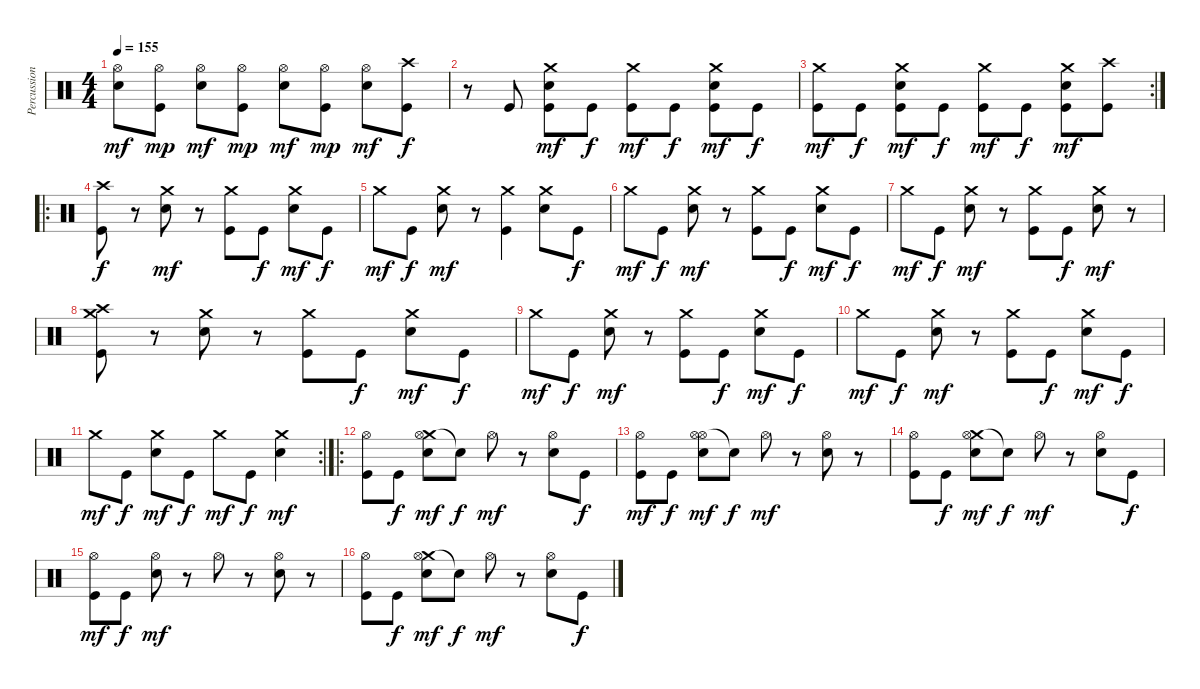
\track ("Percussions" "Percussion") {instrument percussion}
\staff {score}
\articulation defaults
\ts (4 4)
\tempo 155
\clef neutral
\ks c
("Electric Snare (hit)" "Hi-Hat (open)").8{dy mf} ("Kick (hit)" "Hi-Hat (open)").8{dy mp} ("Electric Snare (hit)" "Hi-Hat (open)").8{dy mf} ("Kick (hit)" "Hi-Hat (open)").8{dy mp} ("Electric Snare (hit)" "Hi-Hat (open)").8{dy mf} ("Kick (hit)" "Hi-Hat (open)").8{dy mp} ("Electric Snare (hit)" "Hi-Hat (open)").8{dy mf} ("Kick (hit)" "Crash high (hit)").8{dy f} |
r.8 "Kick (hit)".8 ("Kick (hit)" "Electric Snare (hit)" "Crash medium (hit)").8{dy mf} "Kick (hit)".8{dy f} ("Kick (hit)" "Crash medium (hit)").8{dy mf} "Kick (hit)".8{dy f} ("Kick (hit)" "Electric Snare (hit)" "Crash medium (hit)").8{dy mf} "Kick (hit)".8{dy f} |
\rc 2
("Kick (hit)" "Crash medium (hit)").8{dy mf} "Kick (hit)".8{dy f} ("Kick (hit)" "Electric Snare (hit)" "Crash medium (hit)").8{dy mf} "Kick (hit)".8{dy f} ("Kick (hit)" "Crash medium (hit)").8{dy mf} "Kick (hit)".8{dy f} ("Kick (hit)" "Electric Snare (hit)" "Crash medium (hit)").8{dy mf} ("Kick (hit)" "Crash high (hit)").8 |
\ro
("Kick (hit)" "Crash high (hit)").8{dy f} r.8 ("Electric Snare (hit)" "Crash medium (hit)").8{dy mf} r.8 ("Kick (hit)" "Crash medium (hit)").8 "Kick (hit)".8{dy f} ("Electric Snare (hit)" "Crash medium (hit)").8{dy mf} "Kick (hit)".8{dy f} |
"Crash medium (hit)".8{dy mf} "Kick (hit)".8{dy f} ("Electric Snare (hit)" "Crash medium (hit)").8{dy mf} r.8 ("Kick (hit)" "Crash medium (hit)").4 ("Electric Snare (hit)" "Crash medium (hit)").8 "Kick (hit)".8{dy f} |
"Crash medium (hit)".8{dy mf} "Kick (hit)".8{dy f} ("Electric Snare (hit)" "Crash medium (hit)").8{dy mf} r.8 ("Kick (hit)" "Crash medium (hit)").8 "Kick (hit)".8{dy f} ("Electric Snare (hit)" "Crash medium (hit)").8{dy mf} "Kick (hit)".8{dy f} |
"Crash medium (hit)".8{dy mf} "Kick (hit)".8{dy f} ("Electric Snare (hit)" "Crash medium (hit)").8{dy mf} r.8 ("Kick (hit)" "Crash medium (hit)").8 "Kick (hit)".8{dy f} ("Electric Snare (hit)" "Crash medium (hit)").8{dy mf} r.8 |
("Kick (hit)" "Crash medium (hit)" "Crash high (hit)").8 r.8 ("Electric Snare (hit)" "Crash medium (hit)").8 r.8 ("Kick (hit)" "Crash medium (hit)").8 "Kick (hit)".8{dy f} ("Electric Snare (hit)" "Crash medium (hit)").8{dy mf} "Kick (hit)".8{dy f} |
"Crash medium (hit)".8{dy mf} "Kick (hit)".8{dy f} ("Electric Snare (hit)" "Crash medium (hit)").8{dy mf} r.8 ("Kick (hit)" "Crash medium (hit)").8 "Kick (hit)".8{dy f} ("Electric Snare (hit)" "Crash medium (hit)").8{dy mf} "Kick (hit)".8{dy f} |
"Crash medium (hit)".8{dy mf} "Kick (hit)".8{dy f} ("Electric Snare (hit)" "Crash medium (hit)").8{dy mf} r.8 ("Kick (hit)" "Crash medium (hit)").8 "Kick (hit)".8{dy f} ("Electric Snare (hit)" "Crash medium (hit)").8{dy mf} "Kick (hit)".8{dy f} |
\rc 2 "Crash medium (hit)".8{dy mf} "Kick (hit)".8{dy f}
("Electric Snare (hit)" "Crash medium (hit)").8{dy mf} "Kick (hit)".8{dy f} "Crash medium (hit)".8{dy mf} "Kick (hit)".8{dy f} ("Electric Snare (hit)" "Crash medium (hit)").4{dy mf} |
\ro
("Kick (hit)" "Hi-Hat (open)").8 "Kick (hit)".8{dy f} ("Crash medium (hit)" "Electric Snare (hit)" "Hi-Hat (open)").8{dy mf} "Snare (hit)"{t}.8{dy f} "Hi-Hat (open)".8{dy mf} r.8 ("Electric Snare (hit)" "Hi-Hat (open)").8 "Kick (hit)".8{dy f} |
("Kick (hit)" "Hi-Hat (open)").8{dy mf} "Kick (hit)".8{dy f} ("Hi-Hat (open)" "Electric Snare (hit)" "Hi-Hat (open)").8{dy mf} "Snare (hit)"{t}.8{dy f} "Hi-Hat (open)".8{dy mf} r.8 ("Electric Snare (hit)" "Hi-Hat (open)").8 r.8 |
("Kick (hit)" "Hi-Hat (open)").8 "Kick (hit)".8{dy f} ("Crash medium (hit)" "Electric Snare (hit)" "Hi-Hat (open)").8{dy mf} "Snare (hit)"{t}.8{dy f} "Hi-Hat (open)".8{dy mf} r.8 ("Electric Snare (hit)" "Hi-Hat (open)").8 "Kick (hit)".8{dy f} |
("Kick (hit)" "Hi-Hat (open)").8{dy mf} "Kick (hit)".8{dy f} ("Electric Snare (hit)" "Hi-Hat (open)").8{dy mf} r.8 "Hi-Hat (open)".8 r.8 ("Electric Snare (hit)" "Hi-Hat (open)").8 r.8 |
("Kick (hit)" "Hi-Hat (open)").8 "Kick (hit)".8{dy f} ("Crash medium (hit)" "Electric Snare (hit)" "Hi-Hat (open)").8{dy mf} "Snare (hit)"{t}.8{dy f} "Hi-Hat (open)".8{dy mf} r.8 ("Electric Snare (hit)" "Hi-Hat (open)").8 "Kick (hit)".8{dy f}
